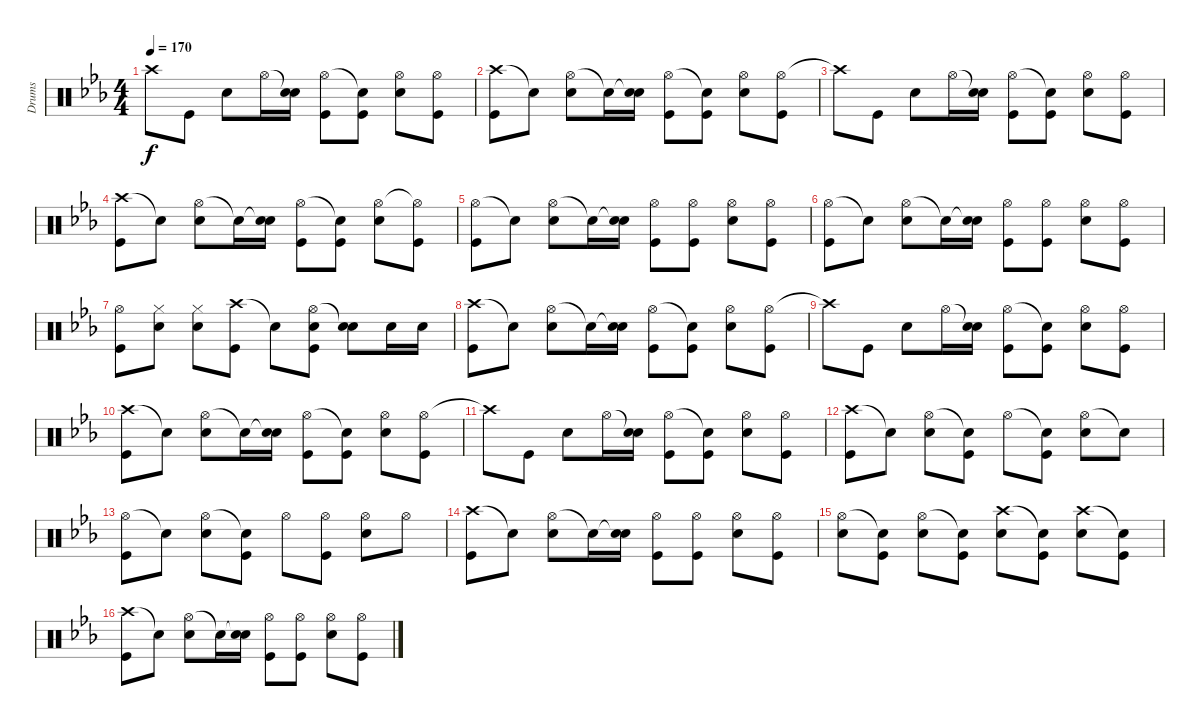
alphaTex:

\track ("Drums" "Drums") {solo instrument percussion}
\staff {score}
\articulation defaults
\ts (4 4)
\tempo 170
\clef neutral
\ks eb "Crash high (hit)"{t}.8{dy f} "Kick (hit)".8 "Snare (hit) 2".8 "Hi-Hat (open)".16
("Snare (hit)"{t} "Snare (hit) 2").16 ("Hi-Hat (open)" "Kick (hit)").8 ("Snare (hit)"{t} "Kick (hit)").8 ("Hi-Hat (open)" "Snare (hit) 2").8 ("Hi-Hat (open)" "Kick (hit)").8 |
("Crash high (hit)" "Kick (hit)").8 "Snare (hit)"{t}.8 ("Hi-Hat (open)" "Snare (hit) 2").8 "Snare (hit)"{t}.16 ("Snare (hit)"{t} "Snare (hit) 2").16 ("Hi-Hat (open)" "Kick (hit)").8 ("Snare (hit)"{t} "Kick (hit)").8 ("Hi-Hat (open)" "Snare (hit) 2").8 ("Hi-Hat (open)" "Kick (hit)").8 |
"Crash high (hit)"{t}.8 "Kick (hit)".8 "Snare (hit) 2".8 "Hi-Hat (open)".16 ("Snare (hit)"{t} "Snare (hit) 2").16 ("Hi-Hat (open)" "Kick (hit)").8 ("Snare (hit)"{t} "Kick (hit)").8 ("Hi-Hat (open)" "Snare (hit) 2").8 ("Hi-Hat (open)" "Kick (hit)").8 |
("Crash high (hit)" "Kick (hit)").8 "Snare (hit)"{t}.8 ("Hi-Hat (open)" "Snare (hit) 2").8 "Snare (hit)"{t}.16 ("Snare (hit)"{t} "Snare (hit) 2").16 ("Hi-Hat (open)" "Kick (hit)").8 ("Snare (hit)"{t} "Kick (hit)").8 ("Hi-Hat (open)" "Snare (hit) 2").8 ("Hi-Hat (open)"{t} "Kick (hit)").8 |
("Hi-Hat (open)" "Kick (hit)").8 "Snare (hit)"{t}.8 ("Hi-Hat (open)" "Snare (hit) 2").8 "Snare (hit)"{t}.16 ("Snare (hit)"{t} "Snare (hit) 2").16 ("Hi-Hat (open)" "Kick (hit)").8 ("Hi-Hat (open)" "Kick (hit)").8 ("Hi-Hat (open)" "Snare (hit) 2").8 ("Hi-Hat (open)" "Kick (hit)").8 |
("Hi-Hat (open)" "Kick (hit)").8 "Snare (hit)"{t}.8 ("Hi-Hat (open)" "Snare (hit) 2").8 "Snare (hit)"{t}.16 ("Snare (hit)"{t} "Snare (hit) 2").16 ("Hi-Hat (open)" "Kick (hit)").8 ("Hi-Hat (open)" "Kick (hit)").8 ("Hi-Hat (open)" "Snare (hit) 2").8 ("Hi-Hat (open)" "Kick (hit)").8 |
("Hi-Hat (open)" "Kick (hit)").8 ("Hi-Hat (closed)" "Snare (hit) 2").8 ("Hi-Hat (closed)" "Snare (hit) 2").8 ("Crash high (hit)" "Kick (hit)").8 "Snare (hit)"{t}.8 ("Hi-Hat (open)" "Snare (hit) 2" "Kick (hit)").8 ("Snare (hit)"{t} "Snare (hit) 2").8 "Snare (hit) 2".16 "Snare (hit) 2".16 |
("Crash high (hit)" "Kick (hit)").8 "Snare (hit)"{t}.8 ("Hi-Hat (open)" "Snare (hit) 2").8 "Snare (hit)"{t}.16 ("Snare (hit)"{t} "Snare (hit) 2").16 ("Hi-Hat (open)" "Kick (hit)").8 ("Snare (hit)"{t} "Kick (hit)").8 ("Hi-Hat (open)" "Snare (hit) 2").8 ("Hi-Hat (open)" "Kick (hit)").8 |
"Crash high (hit)"{t}.8 "Kick (hit)".8 "Snare (hit) 2".8 "Hi-Hat (open)".16 ("Snare (hit)"{t} "Snare (hit) 2").16 ("Hi-Hat (open)" "Kick (hit)").8 ("Snare (hit)"{t} "Kick (hit)").8 ("Hi-Hat (open)" "Snare (hit) 2").8 ("Hi-Hat (open)" "Kick (hit)").8 |
("Crash high (hit)" "Kick (hit)").8 "Snare (hit)"{t}.8 ("Hi-Hat (open)" "Snare (hit) 2").8 "Snare (hit)"{t}.16 ("Snare (hit)"{t} "Snare (hit) 2").16 ("Hi-Hat (open)" "Kick (hit)").8 ("Snare (hit)"{t} "Kick (hit)").8 ("Hi-Hat (open)" "Snare (hit) 2").8 ("Hi-Hat (open)" "Kick (hit)").8 |
"Crash high (hit)"{t}.8 "Kick (hit)".8 "Snare (hit) 2".8 "Hi-Hat (open)".16 ("Snare (hit)"{t} "Snare (hit) 2").16 ("Hi-Hat (open)" "Kick (hit)").8 ("Snare (hit)"{t} "Kick (hit)").8 ("Hi-Hat (open)" "Snare (hit) 2").8 ("Hi-Hat (open)" "Kick (hit)").8 |
("Crash high (hit)" "Kick (hit)").8 "Snare (hit)"{t}.8 ("Hi-Hat (open)" "Snare (hit) 2").8 ("Snare (hit)"{t} "Kick (hit)").8 "Hi-Hat (open)".8 ("Snare (hit)"{t} "Kick (hit)").8 ("Hi-Hat (open)" "Snare (hit) 2").8 "Snare (hit)"{t}.8 |
("Hi-Hat (open)" "Kick (hit)").8 "Snare (hit)"{t}.8 ("Hi-Hat (open)" "Snare (hit) 2").8 ("Snare (hit)"{t} "Kick (hit)").8 "Hi-Hat (open)".8 ("Hi-Hat (open)" "Kick (hit)").8 ("Hi-Hat (open)" "Snare (hit) 2").8 "Hi-Hat (open)".8 |
("Crash high (hit)" "Kick (hit)").8 "Snare (hit)"{t}.8 ("Hi-Hat (open)" "Snare (hit) 2").8 "Snare (hit)"{t}.16 ("Snare (hit)"{t} "Snare (hit) 2").16 ("Hi-Hat (open)" "Kick (hit)").8 ("Hi-Hat (open)" "Kick (hit)").8 ("Hi-Hat (open)" "Snare (hit) 2").8 ("Hi-Hat (open)" "Kick (hit)").8 |
("Hi-Hat (open)" "Snare (hit) 2").8 ("Snare (hit)"{t} "Kick (hit)").8 ("Hi-Hat (open)" "Snare (hit) 2").8 ("Snare (hit)"{t} "Kick (hit)").8 ("Crash high (hit)" "Snare (hit) 2").8 ("Snare (hit)"{t} "Kick (hit)").8 ("Crash high (hit)" "Snare (hit) 2").8 ("Snare (hit)"{t} "Kick (hit)").8 |
("Crash high (hit)" "Kick (hit)").8 "Snare (hit)"{t}.8 ("Hi-Hat (open)" "Snare (hit) 2").8 "Snare (hit)"{t}.16 ("Snare (hit)"{t} "Snare (hit) 2").16 ("Hi-Hat (open)" "Kick (hit)").8 ("Hi-Hat (open)" "Kick (hit)").8 ("Hi-Hat (open)" "Snare (hit) 2").8 ("Hi-Hat (open)" "Kick (hit)").8
